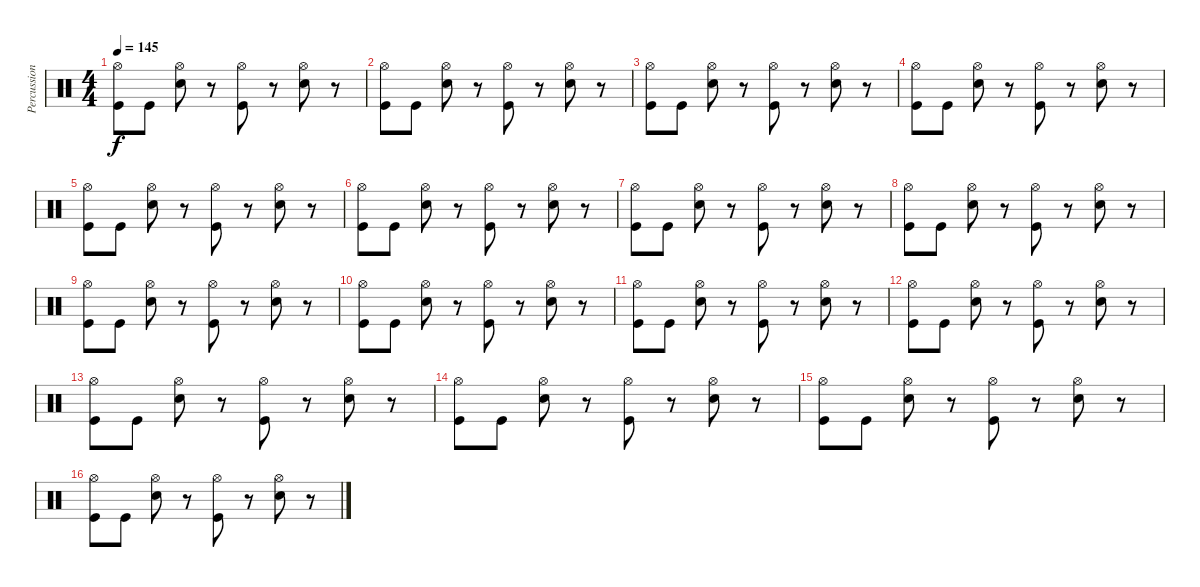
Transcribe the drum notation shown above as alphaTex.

\track ("Percussion" "Percussion") {instrument percussion}
\staff {score}
\articulation defaults
\ts (4 4)
\tempo 145
\clef neutral
\ks c
("Kick (hit)" "Hi-Hat (open)").8{dy f} "Kick (hit)".8 ("Snare (hit) 2" "Hi-Hat (open)").8 r.8 ("Kick (hit)" "Hi-Hat (open)").8 r.8 ("Snare (hit) 2" "Hi-Hat (open)").8 r.8 |
("Kick (hit)" "Hi-Hat (open)").8 "Kick (hit)".8 ("Snare (hit) 2" "Hi-Hat (open)").8 r.8 ("Kick (hit)" "Hi-Hat (open)").8 r.8 ("Snare (hit) 2" "Hi-Hat (open)").8 r.8 |
("Kick (hit)" "Hi-Hat (open)").8 "Kick (hit)".8 ("Snare (hit) 2" "Hi-Hat (open)").8 r.8 ("Kick (hit)" "Hi-Hat (open)").8 r.8 ("Snare (hit) 2" "Hi-Hat (open)").8 r.8 |
("Kick (hit)" "Hi-Hat (open)").8 "Kick (hit)".8 ("Snare (hit) 2" "Hi-Hat (open)").8 r.8 ("Kick (hit)" "Hi-Hat (open)").8 r.8 ("Snare (hit) 2" "Hi-Hat (open)").8 r.8 |
("Kick (hit)" "Hi-Hat (open)").8 "Kick (hit)".8 ("Snare (hit) 2" "Hi-Hat (open)").8 r.8 ("Kick (hit)" "Hi-Hat (open)").8 r.8 ("Snare (hit) 2" "Hi-Hat (open)").8 r.8 |
("Kick (hit)" "Hi-Hat (open)").8 "Kick (hit)".8 ("Snare (hit) 2" "Hi-Hat (open)").8 r.8 ("Kick (hit)" "Hi-Hat (open)").8 r.8 ("Snare (hit) 2" "Hi-Hat (open)").8 r.8 |
("Kick (hit)" "Hi-Hat (open)").8 "Kick (hit)".8 ("Snare (hit) 2" "Hi-Hat (open)").8 r.8 ("Kick (hit)" "Hi-Hat (open)").8 r.8 ("Snare (hit) 2" "Hi-Hat (open)").8 r.8 |
("Kick (hit)" "Hi-Hat (open)").8 "Kick (hit)".8 ("Snare (hit) 2" "Hi-Hat (open)").8 r.8 ("Kick (hit)" "Hi-Hat (open)").8 r.8 ("Snare (hit) 2" "Hi-Hat (open)").8 r.8 |
("Kick (hit)" "Hi-Hat (open)").8 "Kick (hit)".8 ("Snare (hit) 2" "Hi-Hat (open)").8 r.8 ("Kick (hit)" "Hi-Hat (open)").8 r.8 ("Snare (hit) 2" "Hi-Hat (open)").8 r.8 |
("Kick (hit)" "Hi-Hat (open)").8 "Kick (hit)".8 ("Snare (hit) 2" "Hi-Hat (open)").8 r.8 ("Kick (hit)" "Hi-Hat (open)").8 r.8 ("Snare (hit) 2" "Hi-Hat (open)").8 r.8 |
("Kick (hit)" "Hi-Hat (open)").8 "Kick (hit)".8 ("Snare (hit) 2" "Hi-Hat (open)").8 r.8 ("Kick (hit)" "Hi-Hat (open)").8 r.8 ("Snare (hit) 2" "Hi-Hat (open)").8 r.8 |
("Kick (hit)" "Hi-Hat (open)").8 "Kick (hit)".8 ("Snare (hit) 2" "Hi-Hat (open)").8 r.8 ("Kick (hit)" "Hi-Hat (open)").8 r.8 ("Snare (hit) 2" "Hi-Hat (open)").8 r.8 |
("Kick (hit)" "Hi-Hat (open)").8 "Kick (hit)".8 ("Snare (hit) 2" "Hi-Hat (open)").8 r.8 ("Kick (hit)" "Hi-Hat (open)").8 r.8 ("Snare (hit) 2" "Hi-Hat (open)").8 r.8 |
("Kick (hit)" "Hi-Hat (open)").8 "Kick (hit)".8 ("Snare (hit) 2" "Hi-Hat (open)").8 r.8 ("Kick (hit)" "Hi-Hat (open)").8 r.8 ("Snare (hit) 2" "Hi-Hat (open)").8 r.8 |
("Kick (hit)" "Hi-Hat (open)").8 "Kick (hit)".8 ("Snare (hit) 2" "Hi-Hat (open)").8 r.8 ("Kick (hit)" "Hi-Hat (open)").8 r.8 ("Snare (hit) 2" "Hi-Hat (open)").8 r.8 |
("Kick (hit)" "Hi-Hat (open)").8 "Kick (hit)".8 ("Snare (hit) 2" "Hi-Hat (open)").8 r.8 ("Kick (hit)" "Hi-Hat (open)").8 r.8 ("Snare (hit) 2" "Hi-Hat (open)").8 r.8
